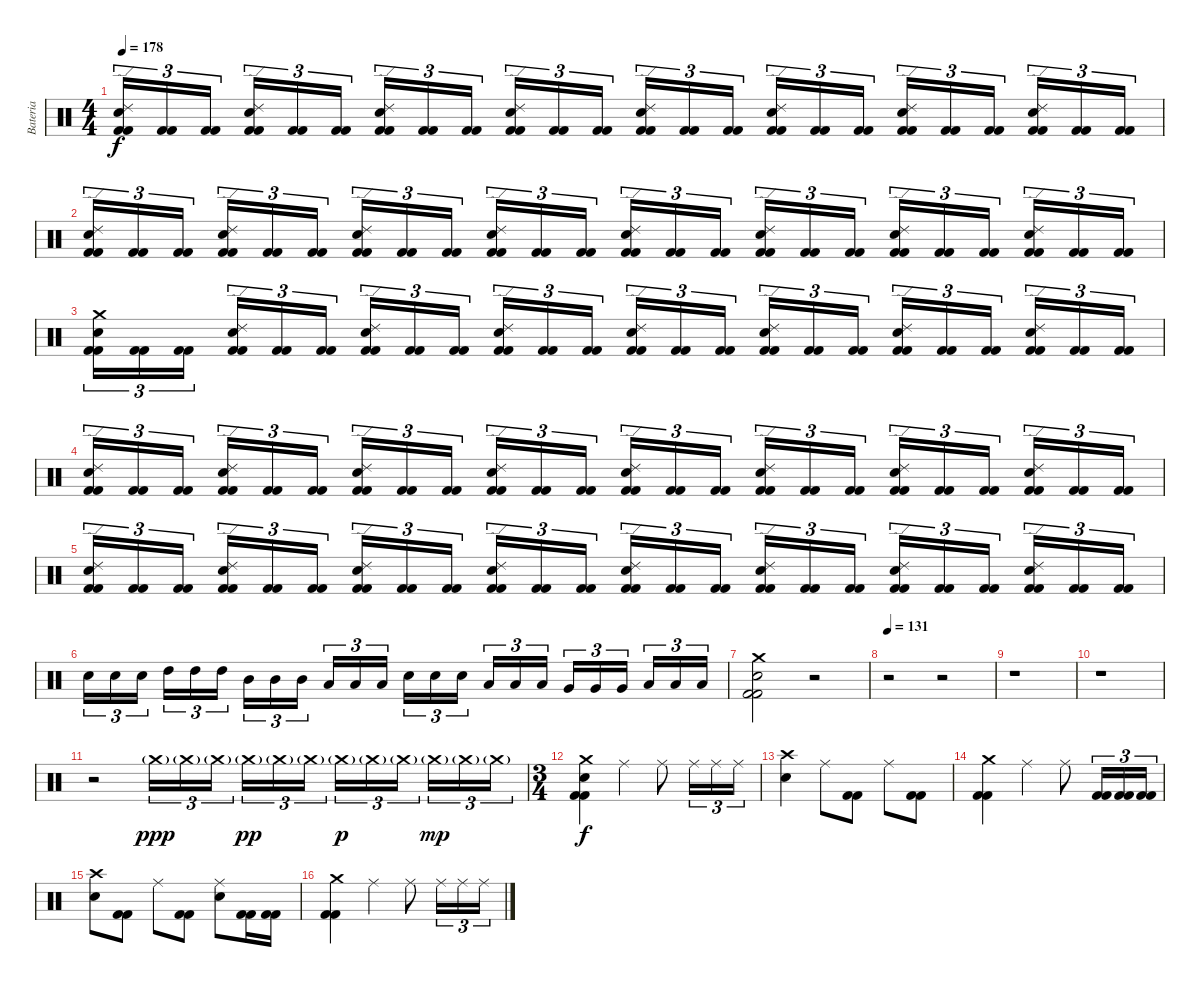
\track ("Bateria" "Bateria") {instrument percussion}
\staff {score}
\articulation defaults
\ts (4 4)
\tempo 178
\clef neutral
\ks c
("Kick (hit) 2" "Kick (hit) 2" "Snare (hit) 2" "Ride (edge) 2").16{tu (3 2) dy f} ("Kick (hit) 2" "Kick (hit) 2").16{tu (3 2)} ("Kick (hit) 2" "Kick (hit) 2").16{tu (3 2)} ("Kick (hit) 2" "Kick (hit) 2" "Snare (hit) 2" "Ride (edge) 2").16{tu (3 2)} ("Kick (hit) 2" "Kick (hit) 2").16{tu (3 2)} ("Kick (hit) 2" "Kick (hit) 2").16{tu (3 2)} ("Kick (hit) 2" "Kick (hit) 2" "Snare (hit) 2" "Ride (edge) 2").16{tu (3 2)} ("Kick (hit) 2" "Kick (hit) 2").16{tu (3 2)} ("Kick (hit) 2" "Kick (hit) 2").16{tu (3 2)} ("Kick (hit) 2" "Kick (hit) 2" "Snare (hit) 2" "Ride (edge) 2").16{tu (3 2)} ("Kick (hit) 2" "Kick (hit) 2").16{tu (3 2)} ("Kick (hit) 2" "Kick (hit) 2").16{tu (3 2)} ("Kick (hit) 2" "Kick (hit) 2" "Snare (hit) 2" "Ride (edge) 2").16{tu (3 2)} ("Kick (hit) 2" "Kick (hit) 2").16{tu (3 2)} ("Kick (hit) 2" "Kick (hit) 2").16{tu (3 2)} ("Kick (hit) 2" "Kick (hit) 2" "Snare (hit) 2" "Ride (edge) 2").16{tu (3 2)} ("Kick (hit) 2" "Kick (hit) 2").16{tu (3 2)} ("Kick (hit) 2" "Kick (hit) 2").16{tu (3 2)} ("Kick (hit) 2" "Kick (hit) 2" "Snare (hit) 2" "Ride (edge) 2").16{tu (3 2)} ("Kick (hit) 2" "Kick (hit) 2").16{tu (3 2)} ("Kick (hit) 2" "Kick (hit) 2").16{tu (3 2)} ("Kick (hit) 2" "Kick (hit) 2" "Snare (hit) 2" "Ride (edge) 2").16{tu (3 2)} ("Kick (hit) 2" "Kick (hit) 2").16{tu (3 2)} ("Kick (hit) 2" "Kick (hit) 2").16{tu (3 2)} |
("Kick (hit) 2" "Kick (hit) 2" "Snare (hit) 2" "Ride (edge) 2").16{tu (3 2)} ("Kick (hit) 2" "Kick (hit) 2").16{tu (3 2)} ("Kick (hit) 2" "Kick (hit) 2").16{tu (3 2)} ("Kick (hit) 2" "Kick (hit) 2" "Snare (hit) 2" "Ride (edge) 2").16{tu (3 2)} ("Kick (hit) 2" "Kick (hit) 2").16{tu (3 2)} ("Kick (hit) 2" "Kick (hit) 2").16{tu (3 2)} ("Kick (hit) 2" "Kick (hit) 2" "Snare (hit) 2" "Ride (edge) 2").16{tu (3 2)} ("Kick (hit) 2" "Kick (hit) 2").16{tu (3 2)} ("Kick (hit) 2" "Kick (hit) 2").16{tu (3 2)} ("Kick (hit) 2" "Kick (hit) 2" "Snare (hit) 2" "Ride (edge) 2").16{tu (3 2)} ("Kick (hit) 2" "Kick (hit) 2").16{tu (3 2)} ("Kick (hit) 2" "Kick (hit) 2").16{tu (3 2)} ("Kick (hit) 2" "Kick (hit) 2" "Snare (hit) 2" "Ride (edge) 2").16{tu (3 2)} ("Kick (hit) 2" "Kick (hit) 2").16{tu (3 2)} ("Kick (hit) 2" "Kick (hit) 2").16{tu (3 2)} ("Kick (hit) 2" "Kick (hit) 2" "Snare (hit) 2" "Ride (edge) 2").16{tu (3 2)} ("Kick (hit) 2" "Kick (hit) 2").16{tu (3 2)} ("Kick (hit) 2" "Kick (hit) 2").16{tu (3 2)} ("Kick (hit) 2" "Kick (hit) 2" "Snare (hit) 2" "Ride (edge) 2").16{tu (3 2)} ("Kick (hit) 2" "Kick (hit) 2").16{tu (3 2)} ("Kick (hit) 2" "Kick (hit) 2").16{tu (3 2)} ("Kick (hit) 2" "Kick (hit) 2" "Snare (hit) 2" "Ride (edge) 2").16{tu (3 2)} ("Kick (hit) 2" "Kick (hit) 2").16{tu (3 2)} ("Kick (hit) 2" "Kick (hit) 2").16{tu (3 2)} |
("Kick (hit) 2" "Kick (hit) 2" "Snare (hit) 2" "Crash medium (hit)").16{tu (3 2)} ("Kick (hit) 2" "Kick (hit) 2").16{tu (3 2)} ("Kick (hit) 2" "Kick (hit) 2").16{tu (3 2)} ("Kick (hit) 2" "Kick (hit) 2" "Snare (hit) 2" "Ride (edge) 2").16{tu (3 2)} ("Kick (hit) 2" "Kick (hit) 2").16{tu (3 2)} ("Kick (hit) 2" "Kick (hit) 2").16{tu (3 2)} ("Kick (hit) 2" "Kick (hit) 2" "Snare (hit) 2" "Ride (edge) 2").16{tu (3 2)} ("Kick (hit) 2" "Kick (hit) 2").16{tu (3 2)} ("Kick (hit) 2" "Kick (hit) 2").16{tu (3 2)} ("Kick (hit) 2" "Kick (hit) 2" "Snare (hit) 2" "Ride (edge) 2").16{tu (3 2)} ("Kick (hit) 2" "Kick (hit) 2").16{tu (3 2)} ("Kick (hit) 2" "Kick (hit) 2").16{tu (3 2)} ("Kick (hit) 2" "Kick (hit) 2" "Snare (hit) 2" "Ride (edge) 2").16{tu (3 2)} ("Kick (hit) 2" "Kick (hit) 2").16{tu (3 2)} ("Kick (hit) 2" "Kick (hit) 2").16{tu (3 2)} ("Kick (hit) 2" "Kick (hit) 2" "Snare (hit) 2" "Ride (edge) 2").16{tu (3 2)} ("Kick (hit) 2" "Kick (hit) 2").16{tu (3 2)} ("Kick (hit) 2" "Kick (hit) 2").16{tu (3 2)} ("Kick (hit) 2" "Kick (hit) 2" "Snare (hit) 2" "Ride (edge) 2").16{tu (3 2)} ("Kick (hit) 2" "Kick (hit) 2").16{tu (3 2)} ("Kick (hit) 2" "Kick (hit) 2").16{tu (3 2)} ("Kick (hit) 2" "Kick (hit) 2" "Snare (hit) 2" "Ride (edge) 2").16{tu (3 2)} ("Kick (hit) 2" "Kick (hit) 2").16{tu (3 2)} ("Kick (hit) 2" "Kick (hit) 2").16{tu (3 2)} |
("Kick (hit) 2" "Kick (hit) 2" "Snare (hit) 2" "Ride (edge) 2").16{tu (3 2)} ("Kick (hit) 2" "Kick (hit) 2").16{tu (3 2)} ("Kick (hit) 2" "Kick (hit) 2").16{tu (3 2)} ("Kick (hit) 2" "Kick (hit) 2" "Snare (hit) 2" "Ride (edge) 2").16{tu (3 2)} ("Kick (hit) 2" "Kick (hit) 2").16{tu (3 2)} ("Kick (hit) 2" "Kick (hit) 2").16{tu (3 2)} ("Kick (hit) 2" "Kick (hit) 2" "Snare (hit) 2" "Ride (edge) 2").16{tu (3 2)} ("Kick (hit) 2" "Kick (hit) 2").16{tu (3 2)} ("Kick (hit) 2" "Kick (hit) 2").16{tu (3 2)} ("Kick (hit) 2" "Kick (hit) 2" "Snare (hit) 2" "Ride (edge) 2").16{tu (3 2)} ("Kick (hit) 2" "Kick (hit) 2").16{tu (3 2)} ("Kick (hit) 2" "Kick (hit) 2").16{tu (3 2)} ("Kick (hit) 2" "Kick (hit) 2" "Snare (hit) 2" "Ride (edge) 2").16{tu (3 2)} ("Kick (hit) 2" "Kick (hit) 2").16{tu (3 2)} ("Kick (hit) 2" "Kick (hit) 2").16{tu (3 2)} ("Kick (hit) 2" "Kick (hit) 2" "Snare (hit) 2" "Ride (edge) 2").16{tu (3 2)} ("Kick (hit) 2" "Kick (hit) 2").16{tu (3 2)} ("Kick (hit) 2" "Kick (hit) 2").16{tu (3 2)} ("Kick (hit) 2" "Kick (hit) 2" "Snare (hit) 2" "Ride (edge) 2").16{tu (3 2)} ("Kick (hit) 2" "Kick (hit) 2").16{tu (3 2)} ("Kick (hit) 2" "Kick (hit) 2").16{tu (3 2)} ("Kick (hit) 2" "Kick (hit) 2" "Snare (hit) 2" "Ride (edge) 2").16{tu (3 2)} ("Kick (hit) 2" "Kick (hit) 2").16{tu (3 2)} ("Kick (hit) 2" "Kick (hit) 2").16{tu (3 2)} |
("Kick (hit) 2" "Kick (hit) 2" "Snare (hit) 2" "Ride (edge) 2").16{tu (3 2)} ("Kick (hit) 2" "Kick (hit) 2").16{tu (3 2)} ("Kick (hit) 2" "Kick (hit) 2").16{tu (3 2)} ("Kick (hit) 2" "Kick (hit) 2" "Snare (hit) 2" "Ride (edge) 2").16{tu (3 2)} ("Kick (hit) 2" "Kick (hit) 2").16{tu (3 2)} ("Kick (hit) 2" "Kick (hit) 2").16{tu (3 2)} ("Kick (hit) 2" "Kick (hit) 2" "Snare (hit) 2" "Ride (edge) 2").16{tu (3 2)} ("Kick (hit) 2" "Kick (hit) 2").16{tu (3 2)} ("Kick (hit) 2" "Kick (hit) 2").16{tu (3 2)} ("Kick (hit) 2" "Kick (hit) 2" "Snare (hit) 2" "Ride (edge) 2").16{tu (3 2)} ("Kick (hit) 2" "Kick (hit) 2").16{tu (3 2)} ("Kick (hit) 2" "Kick (hit) 2").16{tu (3 2)} ("Kick (hit) 2" "Kick (hit) 2" "Snare (hit) 2" "Ride (edge) 2").16{tu (3 2)} ("Kick (hit) 2" "Kick (hit) 2").16{tu (3 2)} ("Kick (hit) 2" "Kick (hit) 2").16{tu (3 2)} ("Kick (hit) 2" "Kick (hit) 2" "Snare (hit) 2" "Ride (edge) 2").16{tu (3 2)} ("Kick (hit) 2" "Kick (hit) 2").16{tu (3 2)} ("Kick (hit) 2" "Kick (hit) 2").16{tu (3 2)} ("Kick (hit) 2" "Kick (hit) 2" "Snare (hit) 2" "Ride (edge) 2").16{tu (3 2)} ("Kick (hit) 2" "Kick (hit) 2").16{tu (3 2)} ("Kick (hit) 2" "Kick (hit) 2").16{tu (3 2)} ("Kick (hit) 2" "Kick (hit) 2" "Snare (hit) 2" "Ride (edge) 2").16{tu (3 2)} ("Kick (hit) 2" "Kick (hit) 2").16{tu (3 2)} ("Kick (hit) 2" "Kick (hit) 2").16{tu (3 2)} |
"Snare (hit) 2".16{tu (3 2)} "Snare (hit) 2".16{tu (3 2)} "Snare (hit) 2".16{tu (3 2)} "High Tom (hit)".16{tu (3 2)} "High Tom (hit)".16{tu (3 2)} "High Tom (hit)".16{tu (3 2)} "Mid Tom (hit)".16{tu (3 2)} "Mid Tom (hit)".16{tu (3 2)} "Mid Tom (hit)".16{tu (3 2)} "Low Tom (hit)".16{tu (3 2)} "Low Tom (hit)".16{tu (3 2)} "Low Tom (hit)".16{tu (3 2)} "Snare (hit) 2".16{tu (3 2)} "Snare (hit) 2".16{tu (3 2)} "Snare (hit) 2".16{tu (3 2)} "Low Tom (hit)".16{tu (3 2)} "Low Tom (hit)".16{tu (3 2)} "Low Tom (hit)".16{tu (3 2)} "Very Low Tom (hit)".16{tu (3 2)} "Very Low Tom (hit)".16{tu (3 2)} "Very Low Tom (hit)".16{tu (3 2)} "Low Floor Tom (hit)".16{tu (3 2)} "Low Floor Tom (hit)".16{tu (3 2)} "Low Floor Tom (hit)".16{tu (3 2)} |
("Kick (hit) 2" "Kick (hit) 2" "Snare (hit) 2" "Crash medium (hit)").2 r.2 |
\tempo 131
r.2 r.2 |
r.1 |
r.1 |
r.2 "Crash medium (hit)"{g}.16{tu (3 2) dy ppp} "Crash medium (hit)"{g}.16{tu (3 2)} "Crash medium (hit)"{g}.16{tu (3 2)} "Crash medium (hit)"{g}.16{tu (3 2) dy pp} "Crash medium (hit)"{g}.16{tu (3 2)} "Crash medium (hit)"{g}.16{tu (3 2)} "Crash medium (hit)"{g}.16{tu (3 2) dy p} "Crash medium (hit)"{g}.16{tu (3 2)} "Crash medium (hit)"{g}.16{tu (3 2)} "Crash medium (hit)"{g}.16{tu (3 2) dy mp} "Crash medium (hit)"{g}.16{tu (3 2)} "Crash medium (hit)"{g}.16{tu (3 2)} |
\ts (3 4)
("Kick (hit) 2" "Kick (hit) 2" "Snare (hit) 2" "Crash medium (hit)").4{dy f} "Ride (middle)".4 "Ride (middle)".8 "Ride (middle)".16{tu (3 2)} "Ride (middle)".16{tu (3 2)} "Ride (middle)".16{tu (3 2)} |
("Snare (hit) 2" "Crash high (hit)").4 "Ride (middle)".8 ("Kick (hit) 2" "Kick (hit) 2").8 "Ride (middle)".8 ("Kick (hit) 2" "Kick (hit) 2").8 |
("Kick (hit) 2" "Kick (hit) 2" "Crash medium (hit)").4 "Ride (middle)".4 "Ride (middle)".8 ("Kick (hit) 2" "Kick (hit) 2").16{tu (3 2)} ("Kick (hit) 2" "Kick (hit) 2").16{tu (3 2)} ("Kick (hit) 2" "Kick (hit) 2").16{tu (3 2)} |
("Snare (hit) 2" "Crash high (hit)").8 ("Kick (hit) 2" "Kick (hit) 2").8 "Ride (middle)".8 ("Kick (hit) 2" "Kick (hit) 2").8 ("Snare (hit) 2" "Ride (middle)").8 ("Kick (hit) 2" "Kick (hit) 2").16 ("Kick (hit) 2" "Kick (hit) 2").16 |
("Kick (hit) 2" "Kick (hit) 2" "Crash medium (hit)").4 "Ride (middle)".4 "Ride (middle)".8 "Ride (middle)".16{tu (3 2)} "Ride (middle)".16{tu (3 2)} "Ride (middle)".16{tu (3 2)}
